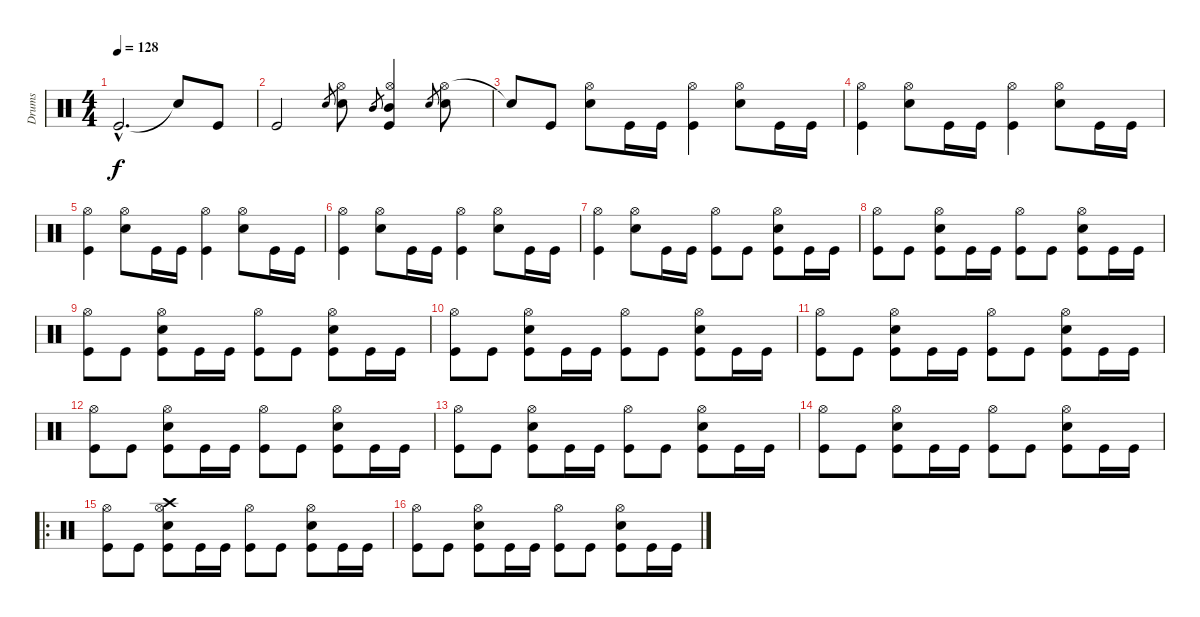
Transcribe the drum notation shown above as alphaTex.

\track ("Drums" "Drums") {instrument percussion}
\staff {score}
\articulation defaults
\ts (4 4)
\tempo 128
\clef neutral
\ks c "Kick (hit)"{hac}.2{d dy f} "Snare (hit)"{t}.8 "Kick (hit)".8
|
"Kick (hit)".2 "Snare (hit) 2".8{gr} ("Hi-Hat (open)" "Snare (hit) 2").8 "Mid Tom (hit)".8{gr} ("Hi-Hat (open)" "Mid Tom (hit)" "Kick (hit)").4 "Snare (hit) 2".8{gr} ("Hi-Hat (open)" "Snare (hit) 2").8 |
"Snare (hit)"{t}.8 "Kick (hit)".8 ("Hi-Hat (open)" "Snare (hit) 2").8 "Kick (hit)".16 "Kick (hit)".16 ("Hi-Hat (open)" "Kick (hit)").4 ("Hi-Hat (open)" "Snare (hit) 2").8 "Kick (hit)".16 "Kick (hit)".16 |
("Hi-Hat (open)" "Kick (hit)").4 ("Hi-Hat (open)" "Snare (hit) 2").8 "Kick (hit)".16 "Kick (hit)".16 ("Hi-Hat (open)" "Kick (hit)").4 ("Hi-Hat (open)" "Snare (hit) 2").8 "Kick (hit)".16 "Kick (hit)".16 |
("Hi-Hat (open)" "Kick (hit)").4 ("Hi-Hat (open)" "Snare (hit) 2").8 "Kick (hit)".16 "Kick (hit)".16 ("Hi-Hat (open)" "Kick (hit)").4 ("Hi-Hat (open)" "Snare (hit) 2").8 "Kick (hit)".16 "Kick (hit)".16 |
("Hi-Hat (open)" "Kick (hit)").4 ("Hi-Hat (open)" "Snare (hit) 2").8 "Kick (hit)".16 "Kick (hit)".16 ("Hi-Hat (open)" "Kick (hit)").4 ("Hi-Hat (open)" "Snare (hit) 2").8 "Kick (hit)".16 "Kick (hit)".16 |
("Hi-Hat (open)" "Kick (hit)").4 ("Hi-Hat (open)" "Snare (hit) 2").8 "Kick (hit)".16 "Kick (hit)".16 ("Hi-Hat (open)" "Kick (hit)").8 "Kick (hit)".8 ("Hi-Hat (open)" "Snare (hit) 2" "Kick (hit)").8 "Kick (hit)".16 "Kick (hit)".16 |
("Hi-Hat (open)" "Kick (hit)").8 "Kick (hit)".8 ("Hi-Hat (open)" "Snare (hit) 2" "Kick (hit)").8 "Kick (hit)".16 "Kick (hit)".16 ("Hi-Hat (open)" "Kick (hit)").8 "Kick (hit)".8 ("Hi-Hat (open)" "Snare (hit) 2" "Kick (hit)").8 "Kick (hit)".16 "Kick (hit)".16 |
("Hi-Hat (open)" "Kick (hit)").8 "Kick (hit)".8 ("Hi-Hat (open)" "Snare (hit) 2" "Kick (hit)").8 "Kick (hit)".16 "Kick (hit)".16 ("Hi-Hat (open)" "Kick (hit)").8 "Kick (hit)".8 ("Hi-Hat (open)" "Snare (hit) 2" "Kick (hit)").8 "Kick (hit)".16 "Kick (hit)".16 |
("Hi-Hat (open)" "Kick (hit)").8 "Kick (hit)".8 ("Hi-Hat (open)" "Snare (hit) 2" "Kick (hit)").8 "Kick (hit)".16 "Kick (hit)".16 ("Hi-Hat (open)" "Kick (hit)").8 "Kick (hit)".8 ("Hi-Hat (open)" "Snare (hit) 2" "Kick (hit)").8 "Kick (hit)".16 "Kick (hit)".16 |
("Hi-Hat (open)" "Kick (hit)").8 "Kick (hit)".8 ("Hi-Hat (open)" "Snare (hit) 2" "Kick (hit)").8 "Kick (hit)".16 "Kick (hit)".16 ("Hi-Hat (open)" "Kick (hit)").8 "Kick (hit)".8 ("Hi-Hat (open)" "Snare (hit) 2" "Kick (hit)").8 "Kick (hit)".16 "Kick (hit)".16 |
("Hi-Hat (open)" "Kick (hit)").8 "Kick (hit)".8 ("Hi-Hat (open)" "Snare (hit) 2" "Kick (hit)").8 "Kick (hit)".16 "Kick (hit)".16 ("Hi-Hat (open)" "Kick (hit)").8 "Kick (hit)".8 ("Hi-Hat (open)" "Snare (hit) 2" "Kick (hit)").8 "Kick (hit)".16 "Kick (hit)".16 |
("Hi-Hat (open)" "Kick (hit)").8 "Kick (hit)".8 ("Hi-Hat (open)" "Snare (hit) 2" "Kick (hit)").8 "Kick (hit)".16 "Kick (hit)".16 ("Hi-Hat (open)" "Kick (hit)").8 "Kick (hit)".8 ("Hi-Hat (open)" "Snare (hit) 2" "Kick (hit)").8 "Kick (hit)".16 "Kick (hit)".16 |
("Hi-Hat (open)" "Kick (hit)").8 "Kick (hit)".8 ("Hi-Hat (open)" "Snare (hit) 2" "Kick (hit)").8 "Kick (hit)".16 "Kick (hit)".16 ("Hi-Hat (open)" "Kick (hit)").8 "Kick (hit)".8 ("Hi-Hat (open)" "Snare (hit) 2" "Kick (hit)").8 "Kick (hit)".16 "Kick (hit)".16 |
\ro
("Hi-Hat (open)" "Kick (hit)").8 "Kick (hit)".8 ("Crash high (hit)" "Hi-Hat (open)" "Snare (hit) 2" "Kick (hit)").8 "Kick (hit)".16 "Kick (hit)".16 ("Hi-Hat (open)" "Kick (hit)").8 "Kick (hit)".8 ("Hi-Hat (open)" "Snare (hit) 2" "Kick (hit)").8 "Kick (hit)".16 "Kick (hit)".16 |
("Hi-Hat (open)" "Kick (hit)").8 "Kick (hit)".8 ("Hi-Hat (open)" "Snare (hit) 2" "Kick (hit)").8 "Kick (hit)".16 "Kick (hit)".16 ("Hi-Hat (open)" "Kick (hit)").8 "Kick (hit)".8 ("Hi-Hat (open)" "Snare (hit) 2" "Kick (hit)").8 "Kick (hit)".16 "Kick (hit)".16
